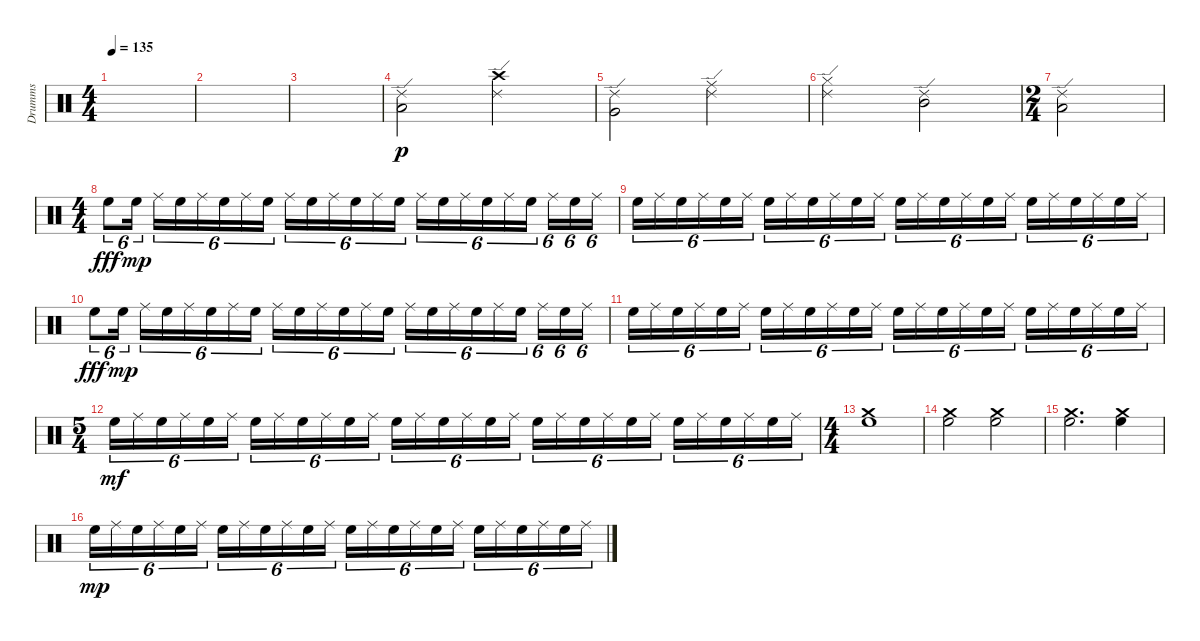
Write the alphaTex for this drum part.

\track ("Drumms" "Drumms") {instrument percussion}
\staff {score}
\articulation defaults
\ts (4 4)
\tempo 135
\clef neutral
\ks c
|
|
|
\section ("" "")
("Ride (edge) 2" "Low Floor Tom (hit)").2{dy p} ("Ride (edge) 2" "Crash high (hit)").2 |
("Ride (edge) 2" "Very Low Tom (hit)").2 ("Ride (edge) 2" "Ride (middle)").2 |
("Ride (edge) 2" "Hi-Hat (closed)").2 ("Ride (edge) 2" "Mid Tom (hit)").2 |
\ts (2 4)
\section ("" "")
("Ride (edge) 2" "Low Floor Tom (hit)").2 |
\ts (4 4)
"High Floor Tom (hit)".8{tu (6 4) dy fff} "High Floor Tom (hit)".16{tu (6 4) dy mp} "Ride (middle)".16{tu (6 4)} "High Floor Tom (hit)".16{tu (6 4)} "Ride (middle)".16{tu (6 4)} "High Floor Tom (hit)".16{tu (6 4)} "Ride (middle)".16{tu (6 4)} "High Floor Tom (hit)".16{tu (6 4)} "Ride (middle)".16{tu (6 4)} "High Floor Tom (hit)".16{tu (6 4)} "Ride (middle)".16{tu (6 4)} "High Floor Tom (hit)".16{tu (6 4)} "Ride (middle)".16{tu (6 4)} "High Floor Tom (hit)".16{tu (6 4)} "Ride (middle)".16{tu (6 4)} "High Floor Tom (hit)".16{tu (6 4)} "Ride (middle)".16{tu (6 4)} "High Floor Tom (hit)".16{tu (6 4)} "Ride (middle)".16{tu (6 4)} "High Floor Tom (hit)".16{tu (6 4)} "Ride (middle)".16{tu (6 4)} "High Floor Tom (hit)".16{tu (6 4)} "Ride (middle)".16{tu (6 4)} |
"High Floor Tom (hit)".16{tu (6 4)} "Ride (middle)".16{tu (6 4)} "High Floor Tom (hit)".16{tu (6 4)} "Ride (middle)".16{tu (6 4)} "High Floor Tom (hit)".16{tu (6 4)} "Ride (middle)".16{tu (6 4)} "High Floor Tom (hit)".16{tu (6 4)} "Ride (middle)".16{tu (6 4)} "High Floor Tom (hit)".16{tu (6 4)} "Ride (middle)".16{tu (6 4)} "High Floor Tom (hit)".16{tu (6 4)} "Ride (middle)".16{tu (6 4)} "High Floor Tom (hit)".16{tu (6 4)} "Ride (middle)".16{tu (6 4)} "High Floor Tom (hit)".16{tu (6 4)} "Ride (middle)".16{tu (6 4)} "High Floor Tom (hit)".16{tu (6 4)} "Ride (middle)".16{tu (6 4)} "High Floor Tom (hit)".16{tu (6 4)} "Ride (middle)".16{tu (6 4)} "High Floor Tom (hit)".16{tu (6 4)} "Ride (middle)".16{tu (6 4)} "High Floor Tom (hit)".16{tu (6 4)} "Ride (middle)".16{tu (6 4)} |
"High Floor Tom (hit)".8{tu (6 4) dy fff} "High Floor Tom (hit)".16{tu (6 4) dy mp} "Ride (middle)".16{tu (6 4)} "High Floor Tom (hit)".16{tu (6 4)} "Ride (middle)".16{tu (6 4)} "High Floor Tom (hit)".16{tu (6 4)} "Ride (middle)".16{tu (6 4)} "High Floor Tom (hit)".16{tu (6 4)} "Ride (middle)".16{tu (6 4)} "High Floor Tom (hit)".16{tu (6 4)} "Ride (middle)".16{tu (6 4)} "High Floor Tom (hit)".16{tu (6 4)} "Ride (middle)".16{tu (6 4)} "High Floor Tom (hit)".16{tu (6 4)} "Ride (middle)".16{tu (6 4)} "High Floor Tom (hit)".16{tu (6 4)} "Ride (middle)".16{tu (6 4)} "High Floor Tom (hit)".16{tu (6 4)} "Ride (middle)".16{tu (6 4)} "High Floor Tom (hit)".16{tu (6 4)} "Ride (middle)".16{tu (6 4)} "High Floor Tom (hit)".16{tu (6 4)} "Ride (middle)".16{tu (6 4)} |
"High Floor Tom (hit)".16{tu (6 4)} "Ride (middle)".16{tu (6 4)} "High Floor Tom (hit)".16{tu (6 4)} "Ride (middle)".16{tu (6 4)} "High Floor Tom (hit)".16{tu (6 4)} "Ride (middle)".16{tu (6 4)} "High Floor Tom (hit)".16{tu (6 4)} "Ride (middle)".16{tu (6 4)} "High Floor Tom (hit)".16{tu (6 4)} "Ride (middle)".16{tu (6 4)} "High Floor Tom (hit)".16{tu (6 4)} "Ride (middle)".16{tu (6 4)} "High Floor Tom (hit)".16{tu (6 4)} "Ride (middle)".16{tu (6 4)} "High Floor Tom (hit)".16{tu (6 4)} "Ride (middle)".16{tu (6 4)} "High Floor Tom (hit)".16{tu (6 4)} "Ride (middle)".16{tu (6 4)} "High Floor Tom (hit)".16{tu (6 4)} "Ride (middle)".16{tu (6 4)} "High Floor Tom (hit)".16{tu (6 4)} "Ride (middle)".16{tu (6 4)} "High Floor Tom (hit)".16{tu (6 4)} "Ride (middle)".16{tu (6 4)} |
\ts (5 4)
"High Floor Tom (hit)".16{tu (6 4) dy mf} "Ride (middle)".16{tu (6 4)} "High Floor Tom (hit)".16{tu (6 4)} "Ride (middle)".16{tu (6 4)} "High Floor Tom (hit)".16{tu (6 4)} "Ride (middle)".16{tu (6 4)} "High Floor Tom (hit)".16{tu (6 4)} "Ride (middle)".16{tu (6 4)} "High Floor Tom (hit)".16{tu (6 4)} "Ride (middle)".16{tu (6 4)} "High Floor Tom (hit)".16{tu (6 4)} "Ride (middle)".16{tu (6 4)} "High Floor Tom (hit)".16{tu (6 4)} "Ride (middle)".16{tu (6 4)} "High Floor Tom (hit)".16{tu (6 4)} "Ride (middle)".16{tu (6 4)} "High Floor Tom (hit)".16{tu (6 4)} "Ride (middle)".16{tu (6 4)} "High Floor Tom (hit)".16{tu (6 4)} "Ride (middle)".16{tu (6 4)} "High Floor Tom (hit)".16{tu (6 4)} "Ride (middle)".16{tu (6 4)} "High Floor Tom (hit)".16{tu (6 4)} "Ride (middle)".16{tu (6 4)} "High Floor Tom (hit)".16{tu (6 4)} "Ride (middle)".16{tu (6 4)} "High Floor Tom (hit)".16{tu (6 4)} "Ride (middle)".16{tu (6 4)} "High Floor Tom (hit)".16{tu (6 4)} "Ride (middle)".16{tu (6 4)} |
\ts (4 4)
("Crash medium (hit)" "High Floor Tom (hit)").1 |
("Crash medium (hit)" "High Floor Tom (hit)").2 ("Crash medium (hit)" "High Floor Tom (hit)").2 |
("Crash medium (hit)" "High Floor Tom (hit)").2{d} ("Crash medium (hit)" "High Floor Tom (hit)").4 |
"High Floor Tom (hit)".16{tu (6 4) dy mp} "Ride (middle)".16{tu (6 4)} "High Floor Tom (hit)".16{tu (6 4)} "Ride (middle)".16{tu (6 4)} "High Floor Tom (hit)".16{tu (6 4)} "Ride (middle)".16{tu (6 4)} "High Floor Tom (hit)".16{tu (6 4)} "Ride (middle)".16{tu (6 4)} "High Floor Tom (hit)".16{tu (6 4)} "Ride (middle)".16{tu (6 4)} "High Floor Tom (hit)".16{tu (6 4)} "Ride (middle)".16{tu (6 4)} "High Floor Tom (hit)".16{tu (6 4)} "Ride (middle)".16{tu (6 4)} "High Floor Tom (hit)".16{tu (6 4)} "Ride (middle)".16{tu (6 4)} "High Floor Tom (hit)".16{tu (6 4)} "Ride (middle)".16{tu (6 4)} "High Floor Tom (hit)".16{tu (6 4)} "Ride (middle)".16{tu (6 4)} "High Floor Tom (hit)".16{tu (6 4)} "Ride (middle)".16{tu (6 4)} "High Floor Tom (hit)".16{tu (6 4)} "Ride (middle)".16{tu (6 4)}
